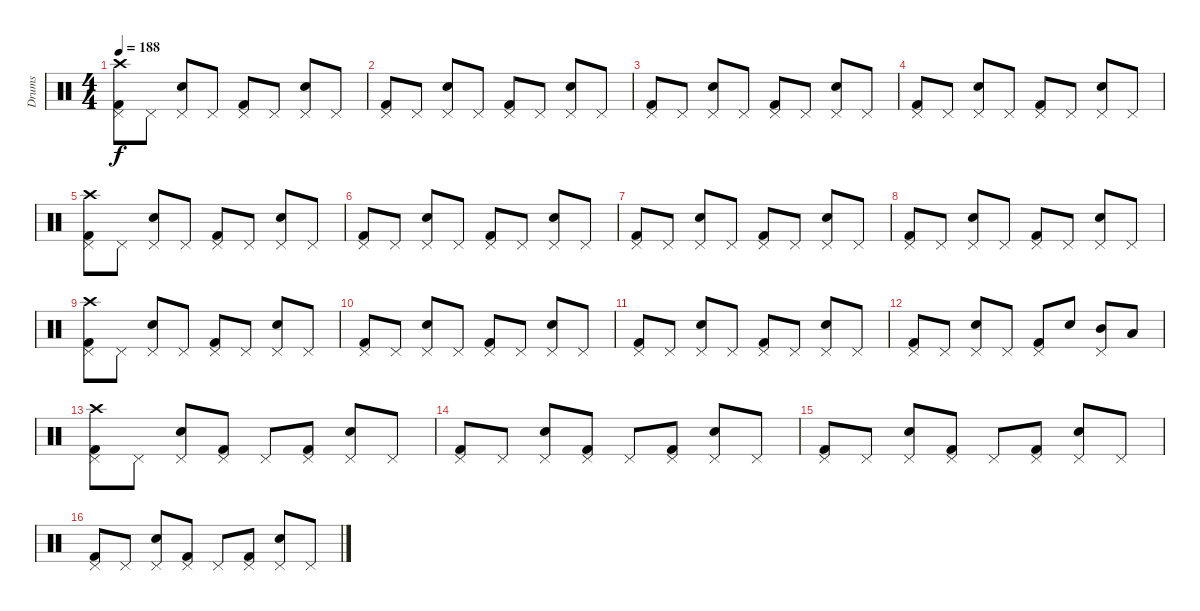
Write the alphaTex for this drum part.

\track ("Drums" "Drums") {instrument percussion}
\staff {score}
\articulation defaults
\ts (4 4)
\tempo 188
\clef neutral
\ks c
("Kick (hit) 2" "Pedal Hi-Hat (hit)" "Crash high (hit)").8{dy f} "Pedal Hi-Hat (hit)".8 ("Snare (hit) 2" "Pedal Hi-Hat (hit)").8 "Pedal Hi-Hat (hit)".8 ("Kick (hit) 2" "Pedal Hi-Hat (hit)").8 "Pedal Hi-Hat (hit)".8 ("Snare (hit) 2" "Pedal Hi-Hat (hit)").8 "Pedal Hi-Hat (hit)".8 |
("Kick (hit) 2" "Pedal Hi-Hat (hit)").8 "Pedal Hi-Hat (hit)".8 ("Snare (hit) 2" "Pedal Hi-Hat (hit)").8 "Pedal Hi-Hat (hit)".8 ("Kick (hit) 2" "Pedal Hi-Hat (hit)").8 "Pedal Hi-Hat (hit)".8 ("Snare (hit) 2" "Pedal Hi-Hat (hit)").8 "Pedal Hi-Hat (hit)".8 |
("Kick (hit) 2" "Pedal Hi-Hat (hit)").8 "Pedal Hi-Hat (hit)".8 ("Snare (hit) 2" "Pedal Hi-Hat (hit)").8 "Pedal Hi-Hat (hit)".8 ("Kick (hit) 2" "Pedal Hi-Hat (hit)").8 "Pedal Hi-Hat (hit)".8 ("Snare (hit) 2" "Pedal Hi-Hat (hit)").8 "Pedal Hi-Hat (hit)".8 |
("Kick (hit) 2" "Pedal Hi-Hat (hit)").8 "Pedal Hi-Hat (hit)".8 ("Snare (hit) 2" "Pedal Hi-Hat (hit)").8 "Pedal Hi-Hat (hit)".8 ("Kick (hit) 2" "Pedal Hi-Hat (hit)").8 "Pedal Hi-Hat (hit)".8 ("Snare (hit) 2" "Pedal Hi-Hat (hit)").8 "Pedal Hi-Hat (hit)".8 |
("Kick (hit) 2" "Pedal Hi-Hat (hit)" "Crash high (hit)").8 "Pedal Hi-Hat (hit)".8 ("Snare (hit) 2" "Pedal Hi-Hat (hit)").8 "Pedal Hi-Hat (hit)".8 ("Kick (hit) 2" "Pedal Hi-Hat (hit)").8 "Pedal Hi-Hat (hit)".8 ("Snare (hit) 2" "Pedal Hi-Hat (hit)").8 "Pedal Hi-Hat (hit)".8 |
("Kick (hit) 2" "Pedal Hi-Hat (hit)").8 "Pedal Hi-Hat (hit)".8 ("Snare (hit) 2" "Pedal Hi-Hat (hit)").8 "Pedal Hi-Hat (hit)".8 ("Kick (hit) 2" "Pedal Hi-Hat (hit)").8 "Pedal Hi-Hat (hit)".8 ("Snare (hit) 2" "Pedal Hi-Hat (hit)").8 "Pedal Hi-Hat (hit)".8 |
("Kick (hit) 2" "Pedal Hi-Hat (hit)").8 "Pedal Hi-Hat (hit)".8 ("Snare (hit) 2" "Pedal Hi-Hat (hit)").8 "Pedal Hi-Hat (hit)".8 ("Kick (hit) 2" "Pedal Hi-Hat (hit)").8 "Pedal Hi-Hat (hit)".8 ("Snare (hit) 2" "Pedal Hi-Hat (hit)").8 "Pedal Hi-Hat (hit)".8 |
("Kick (hit) 2" "Pedal Hi-Hat (hit)").8 "Pedal Hi-Hat (hit)".8 ("Snare (hit) 2" "Pedal Hi-Hat (hit)").8 "Pedal Hi-Hat (hit)".8 ("Kick (hit) 2" "Pedal Hi-Hat (hit)").8 "Pedal Hi-Hat (hit)".8 ("Snare (hit) 2" "Pedal Hi-Hat (hit)").8 "Pedal Hi-Hat (hit)".8 |
("Kick (hit) 2" "Pedal Hi-Hat (hit)" "Crash high (hit)").8 "Pedal Hi-Hat (hit)".8 ("Snare (hit) 2" "Pedal Hi-Hat (hit)").8 "Pedal Hi-Hat (hit)".8 ("Kick (hit) 2" "Pedal Hi-Hat (hit)").8 "Pedal Hi-Hat (hit)".8 ("Snare (hit) 2" "Pedal Hi-Hat (hit)").8 "Pedal Hi-Hat (hit)".8 |
("Kick (hit) 2" "Pedal Hi-Hat (hit)").8 "Pedal Hi-Hat (hit)".8 ("Snare (hit) 2" "Pedal Hi-Hat (hit)").8 "Pedal Hi-Hat (hit)".8 ("Kick (hit) 2" "Pedal Hi-Hat (hit)").8 "Pedal Hi-Hat (hit)".8 ("Snare (hit) 2" "Pedal Hi-Hat (hit)").8 "Pedal Hi-Hat (hit)".8 |
("Kick (hit) 2" "Pedal Hi-Hat (hit)").8 "Pedal Hi-Hat (hit)".8 ("Snare (hit) 2" "Pedal Hi-Hat (hit)").8 "Pedal Hi-Hat (hit)".8 ("Kick (hit) 2" "Pedal Hi-Hat (hit)").8 "Pedal Hi-Hat (hit)".8 ("Snare (hit) 2" "Pedal Hi-Hat (hit)").8 "Pedal Hi-Hat (hit)".8 |
("Kick (hit) 2" "Pedal Hi-Hat (hit)").8 "Pedal Hi-Hat (hit)".8 ("Snare (hit) 2" "Pedal Hi-Hat (hit)").8 "Pedal Hi-Hat (hit)".8 ("Kick (hit) 2" "Pedal Hi-Hat (hit)").8 "Snare (hit) 2".8 ("Mid Tom (hit)" "Pedal Hi-Hat (hit)").8 "Low Tom (hit)".8 |
("Kick (hit) 2" "Pedal Hi-Hat (hit)" "Crash high (hit)").8 "Pedal Hi-Hat (hit)".8 ("Snare (hit) 2" "Pedal Hi-Hat (hit)").8 ("Kick (hit) 2" "Pedal Hi-Hat (hit)").8 "Pedal Hi-Hat (hit)".8 ("Kick (hit) 2" "Pedal Hi-Hat (hit)").8 ("Snare (hit) 2" "Pedal Hi-Hat (hit)").8 "Pedal Hi-Hat (hit)".8 |
("Kick (hit) 2" "Pedal Hi-Hat (hit)").8 "Pedal Hi-Hat (hit)".8 ("Snare (hit) 2" "Pedal Hi-Hat (hit)").8 ("Kick (hit) 2" "Pedal Hi-Hat (hit)").8 "Pedal Hi-Hat (hit)".8 ("Kick (hit) 2" "Pedal Hi-Hat (hit)").8 ("Snare (hit) 2" "Pedal Hi-Hat (hit)").8 "Pedal Hi-Hat (hit)".8 |
("Kick (hit) 2" "Pedal Hi-Hat (hit)").8 "Pedal Hi-Hat (hit)".8 ("Snare (hit) 2" "Pedal Hi-Hat (hit)").8 ("Kick (hit) 2" "Pedal Hi-Hat (hit)").8 "Pedal Hi-Hat (hit)".8 ("Kick (hit) 2" "Pedal Hi-Hat (hit)").8 ("Snare (hit) 2" "Pedal Hi-Hat (hit)").8 "Pedal Hi-Hat (hit)".8 |
("Kick (hit) 2" "Pedal Hi-Hat (hit)").8 "Pedal Hi-Hat (hit)".8 ("Snare (hit) 2" "Pedal Hi-Hat (hit)").8 ("Kick (hit) 2" "Pedal Hi-Hat (hit)").8 "Pedal Hi-Hat (hit)".8 ("Kick (hit) 2" "Pedal Hi-Hat (hit)").8 ("Snare (hit) 2" "Pedal Hi-Hat (hit)").8 "Pedal Hi-Hat (hit)".8
